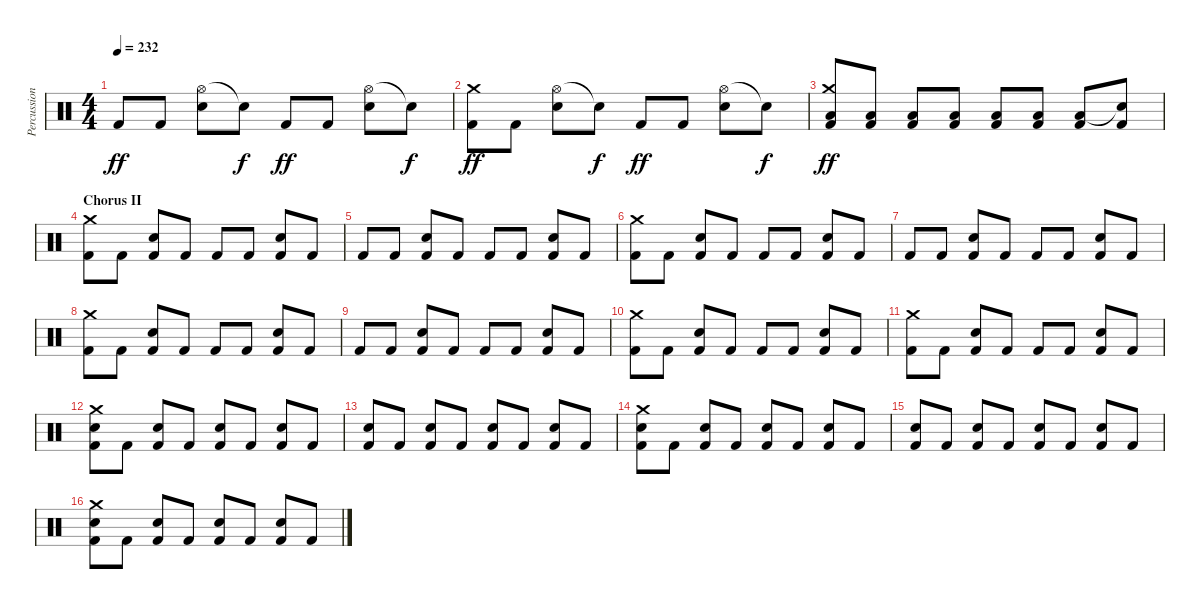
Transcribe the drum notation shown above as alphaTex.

\track ("Percussion" "Percussion") {instrument percussion}
\staff {score}
\articulation defaults
\ts (4 4)
\tempo 232
\clef neutral
\ks c "Kick (hit) 2".8{dy ff} "Kick (hit) 2".8
("Hi-Hat (open)" "Snare (hit) 2").8 "Snare (hit)"{t}.8{dy f} "Kick (hit) 2".8{dy ff} "Kick (hit) 2".8 ("Hi-Hat (open)" "Snare (hit) 2").8 "Snare (hit)"{t}.8{dy f} |
("Crash medium (hit)" "Kick (hit) 2").8{dy ff} "Kick (hit) 2".8 ("Hi-Hat (open)" "Snare (hit) 2").8 "Snare (hit)"{t}.8{dy f} "Kick (hit) 2".8{dy ff} "Kick (hit) 2".8 ("Hi-Hat (open)" "Snare (hit) 2").8 "Snare (hit)"{t}.8{dy f} |
("Crash medium (hit)" "Low Tom (hit)" "Kick (hit) 2").8{dy ff} ("Low Tom (hit)" "Kick (hit) 2").8 ("Low Tom (hit)" "Kick (hit) 2").8 ("Low Floor Tom (hit)" "Kick (hit) 2").8 ("Low Floor Tom (hit)" "Kick (hit) 2").8 ("Low Floor Tom (hit)" "Kick (hit) 2").8 ("Low Floor Tom (hit)" "Kick (hit) 2").8 ("Snare (hit)"{t} "Kick (hit) 2").8 |
\section ("" "Chorus II")
("Crash medium (hit)" "Kick (hit) 2").8 "Kick (hit) 2".8 ("Snare (hit) 2" "Kick (hit) 2").8 "Kick (hit) 2".8 "Kick (hit) 2".8 "Kick (hit) 2".8 ("Snare (hit) 2" "Kick (hit) 2").8 "Kick (hit) 2".8 |
"Kick (hit) 2".8 "Kick (hit) 2".8 ("Snare (hit) 2" "Kick (hit) 2").8 "Kick (hit) 2".8 "Kick (hit) 2".8 "Kick (hit) 2".8 ("Snare (hit) 2" "Kick (hit) 2").8 "Kick (hit) 2".8 |
("Crash medium (hit)" "Kick (hit) 2").8 "Kick (hit) 2".8 ("Snare (hit) 2" "Kick (hit) 2").8 "Kick (hit) 2".8 "Kick (hit) 2".8 "Kick (hit) 2".8 ("Snare (hit) 2" "Kick (hit) 2").8 "Kick (hit) 2".8 |
"Kick (hit) 2".8 "Kick (hit) 2".8 ("Snare (hit) 2" "Kick (hit) 2").8 "Kick (hit) 2".8 "Kick (hit) 2".8 "Kick (hit) 2".8 ("Snare (hit) 2" "Kick (hit) 2").8 "Kick (hit) 2".8 |
("Crash medium (hit)" "Kick (hit) 2").8 "Kick (hit) 2".8 ("Snare (hit) 2" "Kick (hit) 2").8 "Kick (hit) 2".8 "Kick (hit) 2".8 "Kick (hit) 2".8 ("Snare (hit) 2" "Kick (hit) 2").8 "Kick (hit) 2".8 |
"Kick (hit) 2".8 "Kick (hit) 2".8 ("Snare (hit) 2" "Kick (hit) 2").8 "Kick (hit) 2".8 "Kick (hit) 2".8 "Kick (hit) 2".8 ("Snare (hit) 2" "Kick (hit) 2").8 "Kick (hit) 2".8 |
("Crash medium (hit)" "Kick (hit) 2").8 "Kick (hit) 2".8 ("Snare (hit) 2" "Kick (hit) 2").8 "Kick (hit) 2".8 "Kick (hit) 2".8 "Kick (hit) 2".8 ("Snare (hit) 2" "Kick (hit) 2").8 "Kick (hit) 2".8 |
("Crash medium (hit)" "Kick (hit) 2").8 "Kick (hit) 2".8 ("Snare (hit) 2" "Kick (hit) 2").8 "Kick (hit) 2".8 "Kick (hit) 2".8 "Kick (hit) 2".8 ("Snare (hit) 2" "Kick (hit) 2").8 "Kick (hit) 2".8 |
("Crash medium (hit)" "Snare (hit) 2" "Kick (hit) 2").8 "Kick (hit) 2".8 ("Snare (hit) 2" "Kick (hit) 2").8 "Kick (hit) 2".8 ("Snare (hit) 2" "Kick (hit) 2").8 "Kick (hit) 2".8 ("Snare (hit) 2" "Kick (hit) 2").8 "Kick (hit) 2".8 |
("Snare (hit) 2" "Kick (hit) 2").8 "Kick (hit) 2".8 ("Snare (hit) 2" "Kick (hit) 2").8 "Kick (hit) 2".8 ("Snare (hit) 2" "Kick (hit) 2").8 "Kick (hit) 2".8 ("Snare (hit) 2" "Kick (hit) 2").8 "Kick (hit) 2".8 |
("Crash medium (hit)" "Snare (hit) 2" "Kick (hit) 2").8 "Kick (hit) 2".8 ("Snare (hit) 2" "Kick (hit) 2").8 "Kick (hit) 2".8 ("Snare (hit) 2" "Kick (hit) 2").8 "Kick (hit) 2".8 ("Snare (hit) 2" "Kick (hit) 2").8 "Kick (hit) 2".8 |
("Snare (hit) 2" "Kick (hit) 2").8 "Kick (hit) 2".8 ("Snare (hit) 2" "Kick (hit) 2").8 "Kick (hit) 2".8 ("Snare (hit) 2" "Kick (hit) 2").8 "Kick (hit) 2".8 ("Snare (hit) 2" "Kick (hit) 2").8 "Kick (hit) 2".8 |
("Crash medium (hit)" "Snare (hit) 2" "Kick (hit) 2").8 "Kick (hit) 2".8 ("Snare (hit) 2" "Kick (hit) 2").8 "Kick (hit) 2".8 ("Snare (hit) 2" "Kick (hit) 2").8 "Kick (hit) 2".8 ("Snare (hit) 2" "Kick (hit) 2").8 "Kick (hit) 2".8
